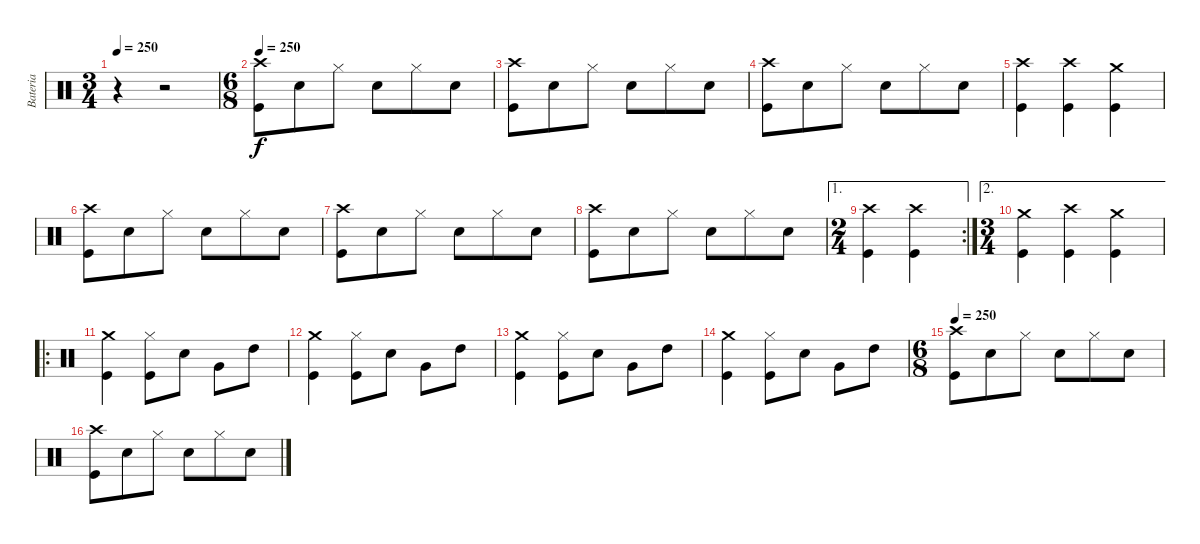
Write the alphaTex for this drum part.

\track ("Bateria" "Bateria") {instrument percussion}
\staff {score}
\articulation defaults
\ts (3 4)
\tempo 250
\clef neutral
\ks c
r.4{dy f} r.2 |
\ts (6 8)
\tempo 250
("Crash high (hit)" "Kick (hit)").8 "Snare (hit) 2".8 "Hi-Hat (closed)".8 "Snare (hit) 2".8 "Hi-Hat (closed)".8 "Snare (hit) 2".8 |
("Crash high (hit)" "Kick (hit)").8 "Snare (hit) 2".8 "Hi-Hat (closed)".8 "Snare (hit) 2".8 "Hi-Hat (closed)".8 "Snare (hit) 2".8 |
("Crash high (hit)" "Kick (hit)").8 "Snare (hit) 2".8 "Hi-Hat (closed)".8 "Snare (hit) 2".8 "Hi-Hat (closed)".8 "Snare (hit) 2".8 |
("Crash high (hit)" "Kick (hit)").4 ("Crash high (hit)" "Kick (hit)").4 ("Crash medium (hit)" "Kick (hit)").4 |
("Crash high (hit)" "Kick (hit)").8 "Snare (hit) 2".8 "Hi-Hat (closed)".8 "Snare (hit) 2".8 "Hi-Hat (closed)".8 "Snare (hit) 2".8 |
("Crash high (hit)" "Kick (hit)").8 "Snare (hit) 2".8 "Hi-Hat (closed)".8 "Snare (hit) 2".8 "Hi-Hat (closed)".8 "Snare (hit) 2".8 |
("Crash high (hit)" "Kick (hit)").8 "Snare (hit) 2".8 "Hi-Hat (closed)".8 "Snare (hit) 2".8 "Hi-Hat (closed)".8 "Snare (hit) 2".8 |
\ae 1
\rc 2
\ts (2 4)
("Crash high (hit)" "Kick (hit)").4 ("Crash high (hit)" "Kick (hit)").4 |
\ae 2
\ts (3 4)
("Crash medium (hit)" "Kick (hit)").4 ("Crash high (hit)" "Kick (hit)").4 ("Crash medium (hit)" "Kick (hit)").4 |
\ro
("Crash medium (hit)" "Kick (hit)").4 ("Hi-Hat (closed)" "Kick (hit)").8 "Snare (hit) 2".8 "Very Low Tom (hit)".8 "High Tom (hit)".8 |
("Crash medium (hit)" "Kick (hit)").4 ("Hi-Hat (closed)" "Kick (hit)").8 "Snare (hit) 2".8 "Very Low Tom (hit)".8 "High Tom (hit)".8 |
("Crash medium (hit)" "Kick (hit)").4 ("Hi-Hat (closed)" "Kick (hit)").8 "Snare (hit) 2".8 "Very Low Tom (hit)".8 "High Tom (hit)".8 |
("Crash medium (hit)" "Kick (hit)").4 ("Hi-Hat (closed)" "Kick (hit)").8 "Snare (hit) 2".8 "Very Low Tom (hit)".8 "High Tom (hit)".8 |
\ts (6 8)
\tempo 250
("Crash high (hit)" "Kick (hit)").8 "Snare (hit) 2".8 "Hi-Hat (closed)".8 "Snare (hit) 2".8 "Hi-Hat (closed)".8 "Snare (hit) 2".8 |
("Crash high (hit)" "Kick (hit)").8 "Snare (hit) 2".8 "Hi-Hat (closed)".8 "Snare (hit) 2".8 "Hi-Hat (closed)".8 "Snare (hit) 2".8
